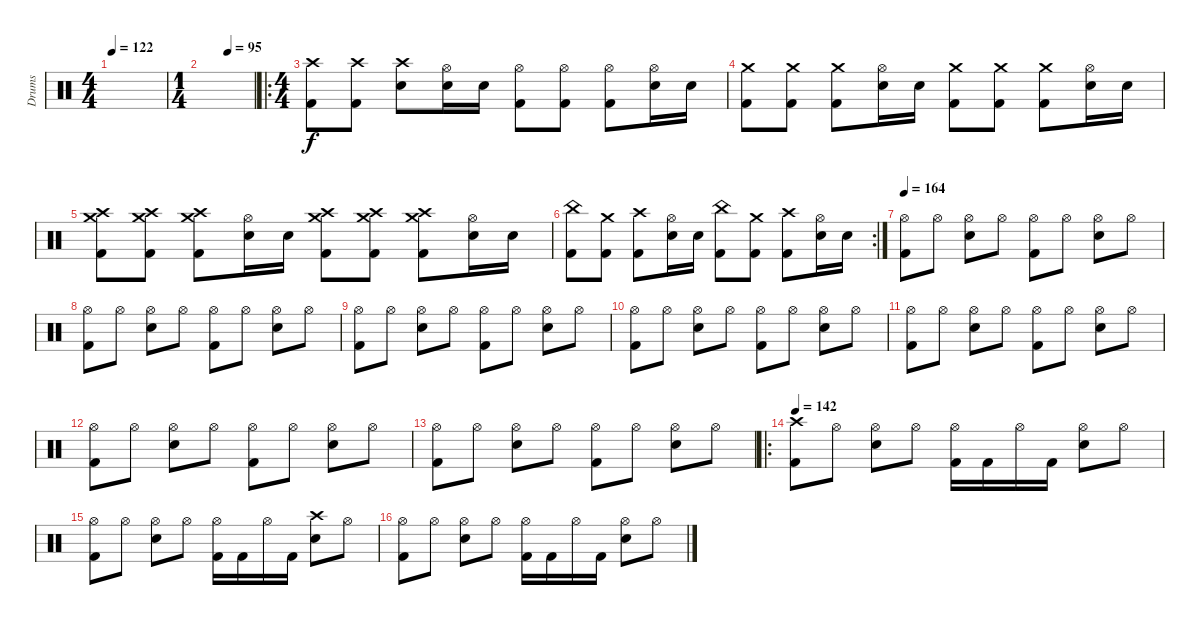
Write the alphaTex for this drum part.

\track ("Drums" "Drums") {instrument percussion}
\staff {score}
\articulation defaults
\ts (4 4)
\tempo 122
\clef neutral
\ks c
|
\ts (1 4)
\tempo (95 0.5)
|
\ro
\ts (4 4)
("Crash high (hit)" "Kick (hit) 2").8 ("Crash high (hit)" "Kick (hit) 2").8 ("Crash high (hit)" "Snare (hit) 2").8 ("Hi-Hat (open)" "Snare (hit) 2").16 "Snare (hit) 2".16 ("Hi-Hat (open)" "Kick (hit) 2").8 ("Hi-Hat (open)" "Kick (hit) 2").8 ("Hi-Hat (open)" "Kick (hit) 2").8 ("Hi-Hat (open)" "Snare (hit) 2").16 "Snare (hit) 2".16 |
("Crash medium (hit)" "Kick (hit) 2").8 ("Crash medium (hit)" "Kick (hit) 2").8 ("Crash medium (hit)" "Kick (hit) 2").8 ("Hi-Hat (open)" "Snare (hit) 2").16 "Snare (hit) 2".16 ("Crash medium (hit)" "Kick (hit) 2").8 ("Crash medium (hit)" "Kick (hit) 2").8 ("Crash medium (hit)" "Kick (hit) 2").8 ("Hi-Hat (open)" "Snare (hit) 2").16 "Snare (hit) 2".16 |
("Crash high (hit)" "Crash medium (hit)" "Kick (hit) 2").8 ("Crash high (hit)" "Crash medium (hit)" "Kick (hit) 2").8 ("Crash high (hit)" "Crash medium (hit)" "Kick (hit) 2").8 ("Hi-Hat (open)" "Snare (hit) 2").16 "Snare (hit) 2".16 ("Crash high (hit)" "Crash medium (hit)" "Kick (hit) 2").8 ("Crash high (hit)" "Crash medium (hit)" "Kick (hit) 2").8 ("Crash high (hit)" "Crash medium (hit)" "Kick (hit) 2").8 ("Hi-Hat (open)" "Snare (hit) 2").16 "Snare (hit) 2".16 |
\rc 2
("China (hit)" "Kick (hit) 2").8 ("Crash medium (hit)" "Kick (hit) 2").8 ("Crash high (hit)" "Kick (hit) 2").8 ("Snare (hit) 2" "Hi-Hat (open)").16 "Snare (hit) 2".16 ("China (hit)" "Kick (hit) 2").8 ("Crash medium (hit)" "Kick (hit) 2").8 ("Crash high (hit)" "Kick (hit) 2").8 ("Snare (hit) 2" "Hi-Hat (open)").16 "Snare (hit) 2".16 |
\tempo 164
("Hi-Hat (open)" "Kick (hit) 2").8 "Hi-Hat (open)".8 ("Hi-Hat (open)" "Snare (hit) 2").8 "Hi-Hat (open)".8 ("Hi-Hat (open)" "Kick (hit) 2").8 "Hi-Hat (open)".8 ("Hi-Hat (open)" "Snare (hit) 2").8 "Hi-Hat (open)".8 |
("Hi-Hat (open)" "Kick (hit) 2").8 "Hi-Hat (open)".8 ("Hi-Hat (open)" "Snare (hit) 2").8 "Hi-Hat (open)".8 ("Hi-Hat (open)" "Kick (hit) 2").8 "Hi-Hat (open)".8 ("Hi-Hat (open)" "Snare (hit) 2").8 "Hi-Hat (open)".8 |
("Hi-Hat (open)" "Kick (hit) 2").8 "Hi-Hat (open)".8 ("Hi-Hat (open)" "Snare (hit) 2").8 "Hi-Hat (open)".8 ("Hi-Hat (open)" "Kick (hit) 2").8 "Hi-Hat (open)".8 ("Hi-Hat (open)" "Snare (hit) 2").8 "Hi-Hat (open)".8 |
("Hi-Hat (open)" "Kick (hit) 2").8 "Hi-Hat (open)".8 ("Hi-Hat (open)" "Snare (hit) 2").8 "Hi-Hat (open)".8 ("Hi-Hat (open)" "Kick (hit) 2").8 "Hi-Hat (open)".8 ("Hi-Hat (open)" "Snare (hit) 2").8 "Hi-Hat (open)".8 |
("Hi-Hat (open)" "Kick (hit) 2").8 "Hi-Hat (open)".8 ("Hi-Hat (open)" "Snare (hit) 2").8 "Hi-Hat (open)".8 ("Hi-Hat (open)" "Kick (hit) 2").8 "Hi-Hat (open)".8 ("Hi-Hat (open)" "Snare (hit) 2").8 "Hi-Hat (open)".8 |
("Hi-Hat (open)" "Kick (hit) 2").8 "Hi-Hat (open)".8 ("Hi-Hat (open)" "Snare (hit) 2").8 "Hi-Hat (open)".8 ("Hi-Hat (open)" "Kick (hit) 2").8 "Hi-Hat (open)".8 ("Hi-Hat (open)" "Snare (hit) 2").8 "Hi-Hat (open)".8 |
("Hi-Hat (open)" "Kick (hit) 2").8 "Hi-Hat (open)".8 ("Hi-Hat (open)" "Snare (hit) 2").8 "Hi-Hat (open)".8 ("Hi-Hat (open)" "Kick (hit) 2").8 "Hi-Hat (open)".8 ("Hi-Hat (open)" "Snare (hit) 2").8 "Hi-Hat (open)".8 |
\ro
\tempo 142
("Crash high (hit)" "Kick (hit) 2").8 "Hi-Hat (open)".8 ("Hi-Hat (open)" "Snare (hit) 2").8 "Hi-Hat (open)".8 ("Hi-Hat (open)" "Kick (hit) 2").16 "Kick (hit) 2".16 "Hi-Hat (open)".16 "Kick (hit) 2".16 ("Hi-Hat (open)" "Snare (hit) 2").8 "Hi-Hat (open)".8 |
("Hi-Hat (open)" "Kick (hit) 2").8 "Hi-Hat (open)".8 ("Hi-Hat (open)" "Snare (hit) 2").8 "Hi-Hat (open)".8 ("Hi-Hat (open)" "Kick (hit) 2").16 "Kick (hit) 2".16 "Hi-Hat (open)".16 "Kick (hit) 2".16 ("Crash high (hit)" "Snare (hit) 2").8 "Hi-Hat (open)".8 |
("Hi-Hat (open)" "Kick (hit) 2").8 "Hi-Hat (open)".8 ("Hi-Hat (open)" "Snare (hit) 2").8 "Hi-Hat (open)".8 ("Hi-Hat (open)" "Kick (hit) 2").16 "Kick (hit) 2".16 "Hi-Hat (open)".16 "Kick (hit) 2".16 ("Hi-Hat (open)" "Snare (hit) 2").8 "Hi-Hat (open)".8
